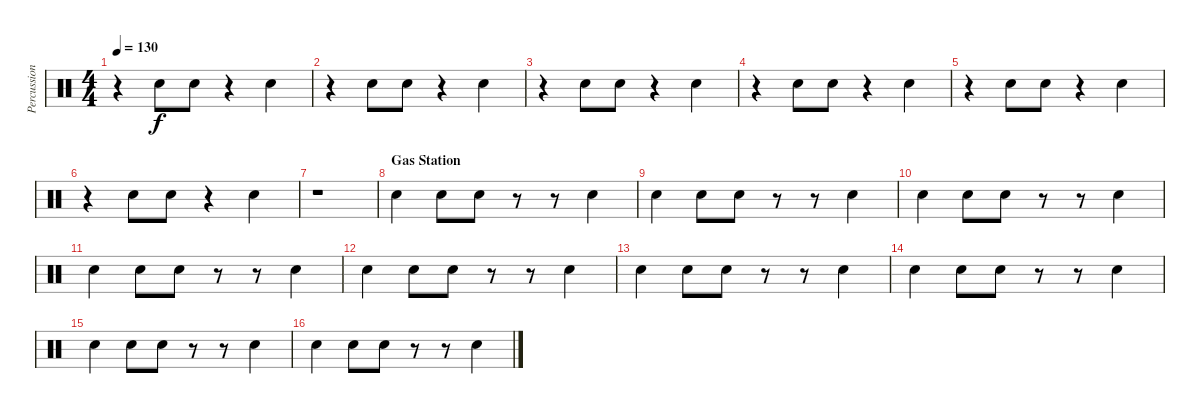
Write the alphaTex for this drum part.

\track ("Percussion" "Percussion") {instrument percussion}
\staff {score}
\articulation defaults
\ts (4 4)
\tempo 130
\clef neutral
\ks c
r.4{dy f} "Electric Snare (hit)".8 "Electric Snare (hit)".8 r.4 "Electric Snare (hit)".4 |
r.4 "Electric Snare (hit)".8 "Electric Snare (hit)".8 r.4 "Electric Snare (hit)".4 |
r.4 "Electric Snare (hit)".8 "Electric Snare (hit)".8 r.4 "Electric Snare (hit)".4 |
r.4 "Electric Snare (hit)".8 "Electric Snare (hit)".8 r.4 "Electric Snare (hit)".4 |
r.4 "Electric Snare (hit)".8 "Electric Snare (hit)".8 r.4 "Electric Snare (hit)".4 |
r.4 "Electric Snare (hit)".8 "Electric Snare (hit)".8 r.4 "Electric Snare (hit)".4 |
r.1 |
\section ("" "Gas Station")
"Electric Snare (hit)".4 "Electric Snare (hit)".8 "Electric Snare (hit)".8 r.8 r.8 "Electric Snare (hit)".4 |
"Electric Snare (hit)".4 "Electric Snare (hit)".8 "Electric Snare (hit)".8 r.8 r.8 "Electric Snare (hit)".4 |
"Electric Snare (hit)".4 "Electric Snare (hit)".8 "Electric Snare (hit)".8 r.8 r.8 "Electric Snare (hit)".4 |
"Electric Snare (hit)".4 "Electric Snare (hit)".8 "Electric Snare (hit)".8 r.8 r.8 "Electric Snare (hit)".4 |
"Electric Snare (hit)".4 "Electric Snare (hit)".8 "Electric Snare (hit)".8 r.8 r.8 "Electric Snare (hit)".4 |
"Electric Snare (hit)".4 "Electric Snare (hit)".8 "Electric Snare (hit)".8 r.8 r.8 "Electric Snare (hit)".4 |
"Electric Snare (hit)".4 "Electric Snare (hit)".8 "Electric Snare (hit)".8 r.8 r.8 "Electric Snare (hit)".4 |
"Electric Snare (hit)".4 "Electric Snare (hit)".8 "Electric Snare (hit)".8 r.8 r.8 "Electric Snare (hit)".4 |
"Electric Snare (hit)".4 "Electric Snare (hit)".8 "Electric Snare (hit)".8 r.8 r.8 "Electric Snare (hit)".4
